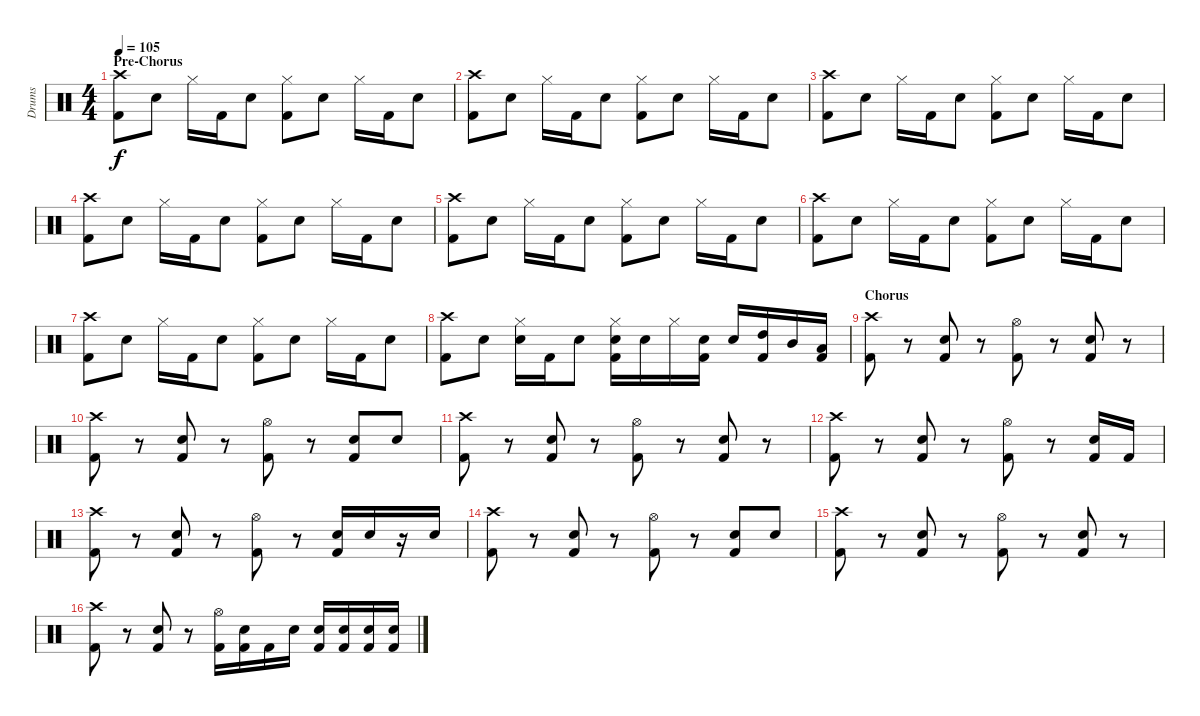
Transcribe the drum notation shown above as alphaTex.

\track ("Drums" "Drums") {instrument percussion}
\staff {score}
\articulation defaults
\ts (4 4)
\section ("" "Pre-Chorus")
\tempo 105
\clef neutral
\ks c
("Crash high (hit)" "Kick (hit) 2").8{dy f} "Snare (hit) 2".8 "Hi-Hat (closed)".16 "Kick (hit) 2".16 "Snare (hit) 2".8 ("Hi-Hat (closed)" "Kick (hit) 2").8 "Snare (hit) 2".8 "Hi-Hat (closed)".16 "Kick (hit) 2".16 "Snare (hit) 2".8 |
("Crash high (hit)" "Kick (hit) 2").8 "Snare (hit) 2".8 "Hi-Hat (closed)".16 "Kick (hit) 2".16 "Snare (hit) 2".8 ("Hi-Hat (closed)" "Kick (hit) 2").8 "Snare (hit) 2".8 "Hi-Hat (closed)".16 "Kick (hit) 2".16 "Snare (hit) 2".8 |
("Crash high (hit)" "Kick (hit) 2").8 "Snare (hit) 2".8 "Hi-Hat (closed)".16 "Kick (hit) 2".16 "Snare (hit) 2".8 ("Hi-Hat (closed)" "Kick (hit) 2").8 "Snare (hit) 2".8 "Hi-Hat (closed)".16 "Kick (hit) 2".16 "Snare (hit) 2".8 |
("Crash high (hit)" "Kick (hit) 2").8 "Snare (hit) 2".8 "Hi-Hat (closed)".16 "Kick (hit) 2".16 "Snare (hit) 2".8 ("Hi-Hat (closed)" "Kick (hit) 2").8 "Snare (hit) 2".8 "Hi-Hat (closed)".16 "Kick (hit) 2".16 "Snare (hit) 2".8 |
("Crash high (hit)" "Kick (hit) 2").8 "Snare (hit) 2".8 "Hi-Hat (closed)".16 "Kick (hit) 2".16 "Snare (hit) 2".8 ("Hi-Hat (closed)" "Kick (hit) 2").8 "Snare (hit) 2".8 "Hi-Hat (closed)".16 "Kick (hit) 2".16 "Snare (hit) 2".8 |
("Crash high (hit)" "Kick (hit) 2").8 "Snare (hit) 2".8 "Hi-Hat (closed)".16 "Kick (hit) 2".16 "Snare (hit) 2".8 ("Hi-Hat (closed)" "Kick (hit) 2").8 "Snare (hit) 2".8 "Hi-Hat (closed)".16 "Kick (hit) 2".16 "Snare (hit) 2".8 |
("Crash high (hit)" "Kick (hit) 2").8 "Snare (hit) 2".8 "Hi-Hat (closed)".16 "Kick (hit) 2".16 "Snare (hit) 2".8 ("Hi-Hat (closed)" "Kick (hit) 2").8 "Snare (hit) 2".8 "Hi-Hat (closed)".16 "Kick (hit) 2".16 "Snare (hit) 2".8 |
("Crash high (hit)" "Kick (hit) 2").8 "Snare (hit) 2".8 ("Hi-Hat (closed)" "Snare (hit) 2").16 "Kick (hit) 2".16 "Snare (hit) 2".8 ("Hi-Hat (closed)" "Snare (hit) 2" "Kick (hit) 2").16 "Snare (hit) 2".16 "Hi-Hat (closed)".16 ("Snare (hit) 2" "Kick (hit) 2").16 "Snare (hit) 2".16 ("High Tom (hit)" "Kick (hit) 2").16 "Mid Tom (hit)".16 ("Low Tom (hit)" "Kick (hit) 2").16 |
\section ("" "Chorus")
("Crash high (hit)" "Kick (hit) 2").8 r.8 ("Snare (hit) 2" "Kick (hit) 2").8 r.8 ("Hi-Hat (open)" "Kick (hit) 2").8 r.8 ("Snare (hit) 2" "Kick (hit) 2").8 r.8 |
("Crash high (hit)" "Kick (hit) 2").8 r.8 ("Snare (hit) 2" "Kick (hit) 2").8 r.8 ("Hi-Hat (open)" "Kick (hit) 2").8 r.8 ("Snare (hit) 2" "Kick (hit) 2").8 "Snare (hit) 2".8 |
("Crash high (hit)" "Kick (hit) 2").8 r.8 ("Snare (hit) 2" "Kick (hit) 2").8 r.8 ("Hi-Hat (open)" "Kick (hit) 2").8 r.8 ("Snare (hit) 2" "Kick (hit) 2").8 r.8 |
("Crash high (hit)" "Kick (hit) 2").8 r.8 ("Snare (hit) 2" "Kick (hit) 2").8 r.8 ("Hi-Hat (open)" "Kick (hit) 2").8 r.8 ("Snare (hit) 2" "Kick (hit) 2").16 "Kick (hit) 2".16 |
("Crash high (hit)" "Kick (hit) 2").8 r.8 ("Snare (hit) 2" "Kick (hit) 2").8 r.8 ("Hi-Hat (open)" "Kick (hit) 2").8 r.8 ("Snare (hit) 2" "Kick (hit) 2").16 "Snare (hit) 2".16 r.16 "Snare (hit) 2".16 |
("Crash high (hit)" "Kick (hit) 2").8 r.8 ("Snare (hit) 2" "Kick (hit) 2").8 r.8 ("Hi-Hat (open)" "Kick (hit) 2").8 r.8 ("Snare (hit) 2" "Kick (hit) 2").8 "Snare (hit) 2".8 |
("Crash high (hit)" "Kick (hit) 2").8 r.8 ("Snare (hit) 2" "Kick (hit) 2").8 r.8 ("Hi-Hat (open)" "Kick (hit) 2").8 r.8 ("Snare (hit) 2" "Kick (hit) 2").8 r.8 |
("Crash high (hit)" "Kick (hit) 2").8 r.8 ("Snare (hit) 2" "Kick (hit) 2").8 r.8 ("Hi-Hat (open)" "Kick (hit) 2").16 ("Snare (hit) 2" "Kick (hit) 2").16 "Kick (hit) 2".16 "Snare (hit) 2".16 ("Snare (hit) 2" "Kick (hit) 2").16 ("Snare (hit) 2" "Kick (hit) 2").16 ("Snare (hit) 2" "Kick (hit) 2").16 ("Snare (hit) 2" "Kick (hit) 2").16
